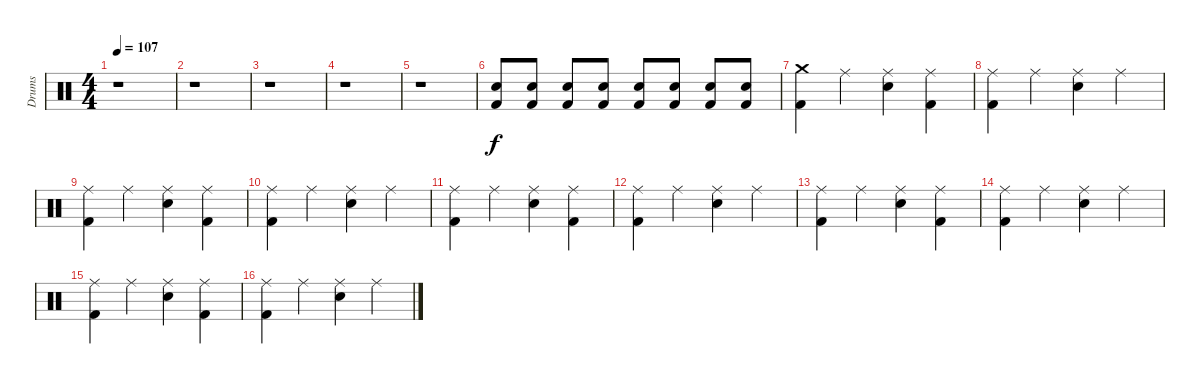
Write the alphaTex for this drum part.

\track ("Drums" "Drums") {instrument percussion}
\staff {score}
\articulation defaults
\ts (4 4)
\tempo 107
\clef neutral
\ks c
r.1{dy f} |
r.1 |
r.1 |
r.1 |
r.1 |
("Electric Snare (hit)" "Kick (hit) 2").8 ("Electric Snare (hit)" "Kick (hit) 2").8 ("Electric Snare (hit)" "Kick (hit) 2").8 ("Electric Snare (hit)" "Kick (hit) 2").8 ("Electric Snare (hit)" "Kick (hit) 2").8 ("Electric Snare (hit)" "Kick (hit) 2").8 ("Electric Snare (hit)" "Kick (hit) 2").8 ("Electric Snare (hit)" "Kick (hit) 2").8 |
("Crash medium (hit)" "Kick (hit) 2").4 "Ride (middle)".4 ("Ride (middle)" "Electric Snare (hit)").4 ("Ride (middle)" "Kick (hit) 2").4 |
("Ride (middle)" "Kick (hit) 2").4 "Ride (middle)".4 ("Ride (middle)" "Electric Snare (hit)").4 "Ride (middle)".4 |
("Ride (middle)" "Kick (hit) 2").4 "Ride (middle)".4 ("Ride (middle)" "Electric Snare (hit)").4 ("Ride (middle)" "Kick (hit) 2").4 |
("Ride (middle)" "Kick (hit) 2").4 "Ride (middle)".4 ("Ride (middle)" "Electric Snare (hit)").4 "Ride (middle)".4 |
("Ride (middle)" "Kick (hit) 2").4 "Ride (middle)".4 ("Ride (middle)" "Electric Snare (hit)").4 ("Ride (middle)" "Kick (hit) 2").4 |
("Ride (middle)" "Kick (hit) 2").4 "Ride (middle)".4 ("Ride (middle)" "Electric Snare (hit)").4 "Ride (middle)".4 |
("Ride (middle)" "Kick (hit) 2").4 "Ride (middle)".4 ("Ride (middle)" "Electric Snare (hit)").4 ("Ride (middle)" "Kick (hit) 2").4 |
("Ride (middle)" "Kick (hit) 2").4 "Ride (middle)".4 ("Ride (middle)" "Electric Snare (hit)").4 "Ride (middle)".4 |
("Ride (middle)" "Kick (hit) 2").4 "Ride (middle)".4 ("Ride (middle)" "Electric Snare (hit)").4 ("Ride (middle)" "Kick (hit) 2").4 |
("Ride (middle)" "Kick (hit) 2").4 "Ride (middle)".4 ("Ride (middle)" "Electric Snare (hit)").4 "Ride (middle)".4
